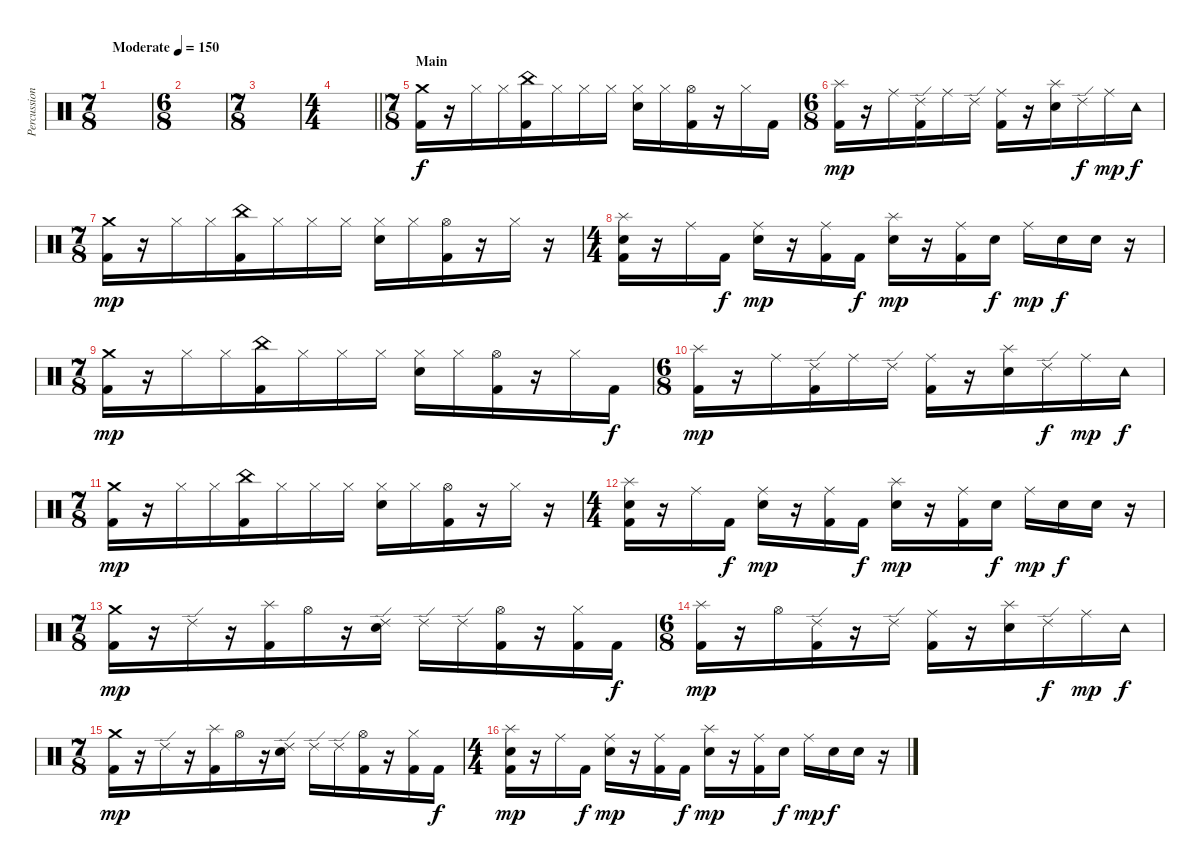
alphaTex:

\track ("Percussion" "Percussion") {instrument percussion}
\staff {score}
\articulation defaults
\ts (7 8)
\tempo (150 "Moderate")
\clef neutral
\ks c
|
\ts (6 8)
|
\ts (7 8)
|
\ts (4 4)
\barLineRight lightlight
|
\ts (7 8)
\section ("" "Main")
("Crash medium (hit)" "Kick (hit) 2").16 r.16 "Hi-Hat (closed)".16 "Hi-Hat (closed)".16 ("China (hit)" "Kick (hit) 2").16 "Hi-Hat (closed)".16 "Hi-Hat (closed)".16 "Hi-Hat (closed)".16 ("Hi-Hat (closed)" "Electric Snare (hit)").16 "Hi-Hat (closed)".16 ("Hi-Hat (open)" "Kick (hit) 2").16 r.16 "Hi-Hat (closed)".16 "Kick (hit) 2".16{dy f} |
\ts (6 8)
("Splash (hit)" "Kick (hit) 2").16{dy mp} r.16 "Ride (middle)".16 ("Ride (edge) 2" "Kick (hit) 2").16 "Ride (middle)".16 "Ride (edge) 2".16 ("Ride (middle)" "Kick (hit) 2").16 r.16 ("Splash (hit)" "Electric Snare (hit)").16 "Ride (edge) 2".16{dy f} "Ride (middle)".16{dy mp} "Tambourine (hit)".16{dy f} |
\ts (7 8)
("Crash medium (hit)" "Kick (hit) 2").16{dy mp} r.16 "Hi-Hat (closed)".16 "Hi-Hat (closed)".16 ("China (hit)" "Kick (hit) 2").16 "Hi-Hat (closed)".16 "Hi-Hat (closed)".16 "Hi-Hat (closed)".16 ("Hi-Hat (closed)" "Electric Snare (hit)").16 "Hi-Hat (closed)".16 ("Hi-Hat (open)" "Kick (hit) 2").16 r.16 "Hi-Hat (closed)".16 r.16 |
\ts (4 4)
("Splash (hit)" "Electric Snare (hit)" "Kick (hit) 2").16 r.16 "Ride (middle)".16 "Kick (hit) 2".16{dy f} ("Ride (middle)" "Electric Snare (hit)").16{dy mp} r.16 ("Ride (middle)" "Kick (hit) 2").16 "Kick (hit) 2".16{dy f} ("Splash (hit)" "Electric Snare (hit)").16{dy mp} r.16 ("Ride (middle)" "Kick (hit) 2").16 "Electric Snare (hit)".16{dy f} "Ride (middle)".16{dy mp} "Electric Snare (hit)".16{dy f} "Electric Snare (hit)".16 r.16 |
\ts (7 8)
("Crash medium (hit)" "Kick (hit) 2").16{dy mp} r.16 "Hi-Hat (closed)".16 "Hi-Hat (closed)".16 ("China (hit)" "Kick (hit) 2").16 "Hi-Hat (closed)".16 "Hi-Hat (closed)".16 "Hi-Hat (closed)".16 ("Hi-Hat (closed)" "Electric Snare (hit)").16 "Hi-Hat (closed)".16 ("Hi-Hat (open)" "Kick (hit) 2").16 r.16 "Hi-Hat (closed)".16 "Kick (hit) 2".16{dy f} |
\ts (6 8)
("Splash (hit)" "Kick (hit) 2").16{dy mp} r.16 "Ride (middle)".16 ("Ride (edge) 2" "Kick (hit) 2").16 "Ride (middle)".16 "Ride (edge) 2".16 ("Ride (middle)" "Kick (hit) 2").16 r.16 ("Splash (hit)" "Electric Snare (hit)").16 "Ride (edge) 2".16{dy f} "Ride (middle)".16{dy mp} "Tambourine (hit)".16{dy f} |
\ts (7 8)
("Crash medium (hit)" "Kick (hit) 2").16{dy mp} r.16 "Hi-Hat (closed)".16 "Hi-Hat (closed)".16 ("China (hit)" "Kick (hit) 2").16 "Hi-Hat (closed)".16 "Hi-Hat (closed)".16 "Hi-Hat (closed)".16 ("Hi-Hat (closed)" "Electric Snare (hit)").16 "Hi-Hat (closed)".16 ("Hi-Hat (open)" "Kick (hit) 2").16 r.16 "Hi-Hat (closed)".16 r.16 |
\ts (4 4)
("Splash (hit)" "Electric Snare (hit)" "Kick (hit) 2").16 r.16 "Ride (middle)".16 "Kick (hit) 2".16{dy f} ("Ride (middle)" "Electric Snare (hit)").16{dy mp} r.16 ("Ride (middle)" "Kick (hit) 2").16 "Kick (hit) 2".16{dy f} ("Splash (hit)" "Electric Snare (hit)").16{dy mp} r.16 ("Ride (middle)" "Kick (hit) 2").16 "Electric Snare (hit)".16{dy f} "Ride (middle)".16{dy mp} "Electric Snare (hit)".16{dy f} "Electric Snare (hit)".16 r.16 |
\ts (7 8)
("Crash medium (hit)" "Kick (hit) 2").16{dy mp} r.16 "Ride (edge) 2".16 r.16 ("Splash (hit)" "Kick (hit) 2").16 "Hi-Hat (open)".16 r.16 ("Ride (edge) 2" "Electric Snare (hit)").16 "Ride (edge) 2".16 "Ride (edge) 2".16 ("Hi-Hat (open)" "Kick (hit) 2").16 r.16 ("Hi-Hat (closed)" "Kick (hit) 2").16 "Kick (hit) 2".16{dy f} |
\ts (6 8)
("Splash (hit)" "Kick (hit) 2").16{dy mp} r.16 "Hi-Hat (open)".16 ("Ride (edge) 2" "Kick (hit) 2").16 r.16 "Ride (edge) 2".16 ("Ride (middle)" "Kick (hit) 2").16 r.16 ("Splash (hit)" "Electric Snare (hit)").16 "Ride (edge) 2".16{dy f} "Ride (middle)".16{dy mp} "Tambourine (hit)".16{dy f} |
\ts (7 8)
("Crash medium (hit)" "Kick (hit) 2").16{dy mp} r.16 "Ride (edge) 2".16 r.16 ("Splash (hit)" "Kick (hit) 2").16 "Hi-Hat (open)".16 r.16 ("Ride (edge) 2" "Electric Snare (hit)").16 "Ride (edge) 2".16 "Ride (edge) 2".16 ("Hi-Hat (open)" "Kick (hit) 2").16 r.16 ("Hi-Hat (closed)" "Kick (hit) 2").16 "Kick (hit) 2".16{dy f} |
\ts (4 4)
("Splash (hit)" "Electric Snare (hit)" "Kick (hit) 2").16{dy mp} r.16 "Ride (middle)".16 "Kick (hit) 2".16{dy f} ("Ride (middle)" "Electric Snare (hit)").16{dy mp} r.16 ("Ride (middle)" "Kick (hit) 2").16 "Kick (hit) 2".16{dy f} ("Splash (hit)" "Electric Snare (hit)").16{dy mp} r.16 ("Ride (middle)" "Kick (hit) 2").16 "Electric Snare (hit)".16{dy f} "Ride (middle)".16{dy mp} "Electric Snare (hit)".16{dy f} "Electric Snare (hit)".16 r.16
